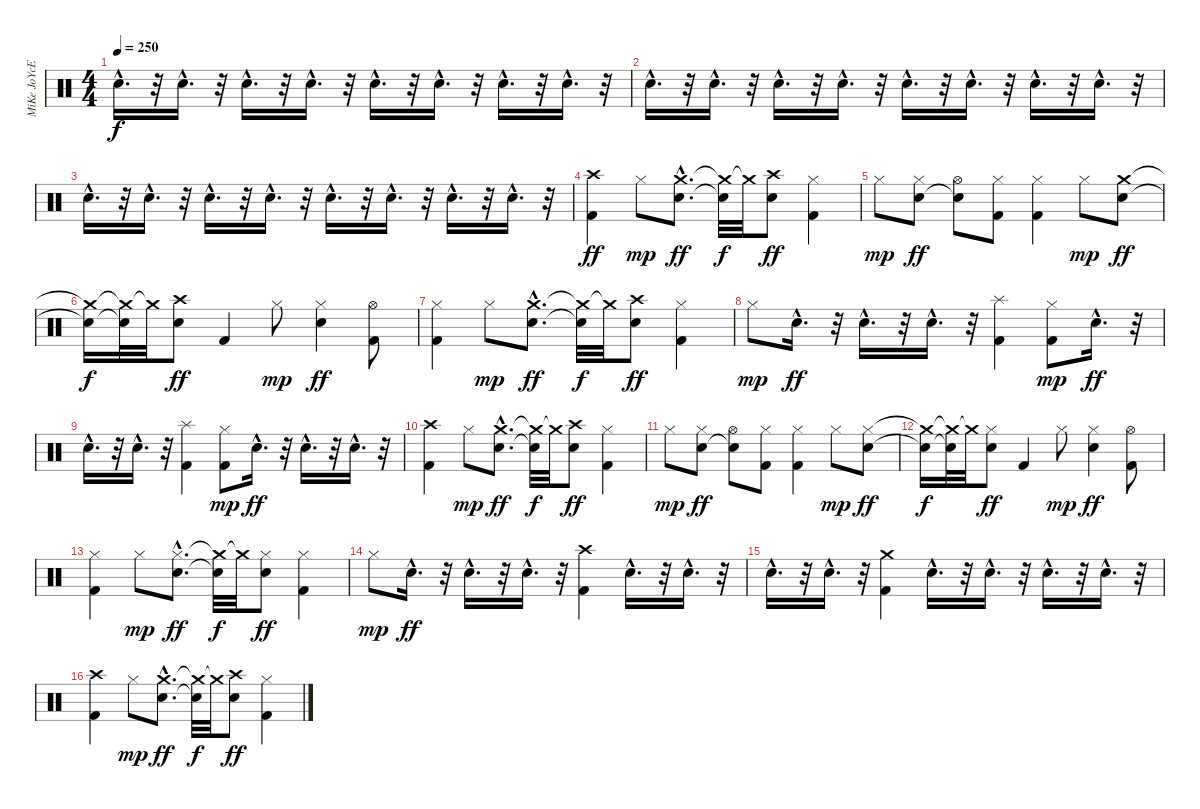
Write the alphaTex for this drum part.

\track ("MiKe JoYcE" "MiKe JoYcE") {instrument percussion}
\staff {score}
\articulation defaults
\ts (4 4)
\tempo 250
\clef neutral
\ks c "Electric Snare (hit)"{hac}.16{d dy f volume 2}
r.32 "Electric Snare (hit)"{hac}.16{d} r.32 "Electric Snare (hit)"{hac}.16{d volume 3} r.32 "Electric Snare (hit)"{hac}.16{d} r.32 "Electric Snare (hit)"{hac}.16{d volume 3} r.32 "Electric Snare (hit)"{hac}.16{d} r.32 "Electric Snare (hit)"{hac}.16{d volume 4} r.32 "Electric Snare (hit)"{hac}.16{d} r.32 |
"Electric Snare (hit)"{hac}.16{d volume 5} r.32 "Electric Snare (hit)"{hac}.16{d volume 6} r.32 "Electric Snare (hit)"{hac}.16{d volume 7} r.32 "Electric Snare (hit)"{hac}.16{d volume 8} r.32 "Electric Snare (hit)"{hac}.16{d volume 9} r.32 "Electric Snare (hit)"{hac}.16{d volume 10} r.32 "Electric Snare (hit)"{hac}.16{d volume 11} r.32 "Electric Snare (hit)"{hac}.16{d} r.32 |
"Electric Snare (hit)"{hac}.16{d volume 12} r.32 "Electric Snare (hit)"{hac}.16{d} r.32 "Electric Snare (hit)"{hac}.16{d volume 13} r.32 "Electric Snare (hit)"{hac}.16{d} r.32 "Electric Snare (hit)"{hac}.16{d volume 14} r.32 "Electric Snare (hit)"{hac}.16{d} r.32 "Electric Snare (hit)"{hac}.16{d volume 15} r.32 "Electric Snare (hit)"{hac}.16{d} r.32 |
("Crash high (hit)" "Kick (hit) 2").4{dy ff} "Hi-Hat (closed)".8{dy mp} ("Crash medium (hit)"{hac} "Electric Snare (hit)"{hac}).8{d dy ff} ("Crash medium (hit)"{t} "Electric Snare (hit)"{t}).32{dy f} "Crash medium (hit)"{t}.32 ("Crash high (hit)" "Electric Snare (hit)").8{dy ff} ("Hi-Hat (closed)" "Kick (hit) 2").4 |
"Hi-Hat (closed)".8{dy mp} ("Hi-Hat (closed)" "Electric Snare (hit)").8{dy ff} ("Hi-Hat (open)" "Electric Snare (hit)"{t}).8 ("Hi-Hat (closed)" "Kick (hit) 2").8 ("Hi-Hat (closed)" "Kick (hit) 2").4 "Hi-Hat (closed)".8{dy mp} ("Crash medium (hit)" "Electric Snare (hit)").8{dy ff} |
("Crash medium (hit)"{t} "Electric Snare (hit)"{t}).16{dy f} ("Crash medium (hit)"{t} "Electric Snare (hit)"{t}).32 "Crash medium (hit)"{t}.32 ("Crash high (hit)" "Electric Snare (hit)").8{dy ff} "Kick (hit) 2".4 "Hi-Hat (closed)".8{dy mp} ("Hi-Hat (closed)" "Electric Snare (hit)").4{dy ff} ("Hi-Hat (open)" "Kick (hit) 2").8 |
("Hi-Hat (closed)" "Kick (hit) 2").4 "Hi-Hat (closed)".8{dy mp} ("Crash medium (hit)"{hac} "Electric Snare (hit)"{hac}).8{d dy ff} ("Crash medium (hit)"{t} "Electric Snare (hit)"{t}).32{dy f} "Crash medium (hit)"{t}.32 ("Crash high (hit)" "Electric Snare (hit)").8{dy ff} ("Hi-Hat (closed)" "Kick (hit) 2").4 |
"Hi-Hat (closed)".8{dy mp} "Electric Snare (hit)"{hac}.16{d dy ff} r.32 "Electric Snare (hit)"{hac}.16{d} r.32 "Electric Snare (hit)"{hac}.16{d} r.32 ("Splash (hit)" "Kick (hit) 2").4 ("Hi-Hat (closed)" "Kick (hit) 2").8{dy mp} "Electric Snare (hit)"{hac}.16{d dy ff} r.32 |
"Electric Snare (hit)"{hac}.16{d} r.32 "Electric Snare (hit)"{hac}.16{d} r.32 ("Splash (hit)" "Kick (hit) 2").4 ("Hi-Hat (closed)" "Kick (hit) 2").8{dy mp} "Electric Snare (hit)"{hac}.16{d dy ff} r.32 "Electric Snare (hit)"{hac}.16{d} r.32 "Electric Snare (hit)"{hac}.16{d} r.32 |
("Crash high (hit)" "Kick (hit) 2").4 "Hi-Hat (closed)".8{dy mp} ("Crash medium (hit)"{hac} "Electric Snare (hit)"{hac}).8{d dy ff} ("Crash medium (hit)"{t} "Electric Snare (hit)"{t}).32{dy f} "Crash medium (hit)"{t}.32 ("Crash high (hit)" "Electric Snare (hit)").8{dy ff} ("Hi-Hat (closed)" "Kick (hit) 2").4 |
"Hi-Hat (closed)".8{dy mp} ("Hi-Hat (closed)" "Electric Snare (hit)").8{dy ff} ("Hi-Hat (open)" "Electric Snare (hit)"{t}).8 ("Hi-Hat (closed)" "Kick (hit) 2").8 ("Hi-Hat (closed)" "Kick (hit) 2").4 "Hi-Hat (closed)".8{dy mp} ("Hi-Hat (closed)" "Electric Snare (hit)").8{dy ff} |
("Crash medium (hit)"{t} "Electric Snare (hit)"{t}).16{dy f} ("Crash medium (hit)"{t} "Electric Snare (hit)"{t}).32 "Crash medium (hit)"{t}.32 ("Hi-Hat (closed)" "Electric Snare (hit)").8{dy ff} "Kick (hit) 2".4 "Hi-Hat (closed)".8{dy mp} ("Hi-Hat (closed)" "Electric Snare (hit)").4{dy ff} ("Hi-Hat (open)" "Kick (hit) 2").8 |
("Hi-Hat (closed)" "Kick (hit) 2").4 "Hi-Hat (closed)".8{dy mp} ("Hi-Hat (closed)"{hac} "Electric Snare (hit)"{hac}).8{d dy ff} ("Crash medium (hit)"{t} "Electric Snare (hit)"{t}).32{dy f} "Crash medium (hit)"{t}.32 ("Hi-Hat (closed)" "Electric Snare (hit)").8{dy ff} ("Hi-Hat (closed)" "Kick (hit) 2").4 |
"Hi-Hat (closed)".8{dy mp} "Electric Snare (hit)"{hac}.16{d dy ff} r.32 "Electric Snare (hit)"{hac}.16{d} r.32 "Electric Snare (hit)"{hac}.16{d} r.32 ("Crash high (hit)" "Kick (hit) 2").4 "Electric Snare (hit)"{hac}.16{d} r.32 "Electric Snare (hit)"{hac}.16{d} r.32 |
"Electric Snare (hit)"{hac}.16{d} r.32 "Electric Snare (hit)"{hac}.16{d} r.32 ("Crash medium (hit)" "Kick (hit) 2").4 "Electric Snare (hit)"{hac}.16{d} r.32 "Electric Snare (hit)"{hac}.16{d} r.32 "Electric Snare (hit)"{hac}.16{d} r.32 "Electric Snare (hit)"{hac}.16{d} r.32 |
("Crash high (hit)" "Kick (hit) 2").4 "Hi-Hat (closed)".8{dy mp} ("Crash medium (hit)"{hac} "Electric Snare (hit)"{hac}).8{d dy ff} ("Crash medium (hit)"{t} "Electric Snare (hit)"{t}).32{dy f} "Crash medium (hit)"{t}.32 ("Crash high (hit)" "Electric Snare (hit)").8{dy ff} ("Hi-Hat (closed)" "Kick (hit) 2").4
